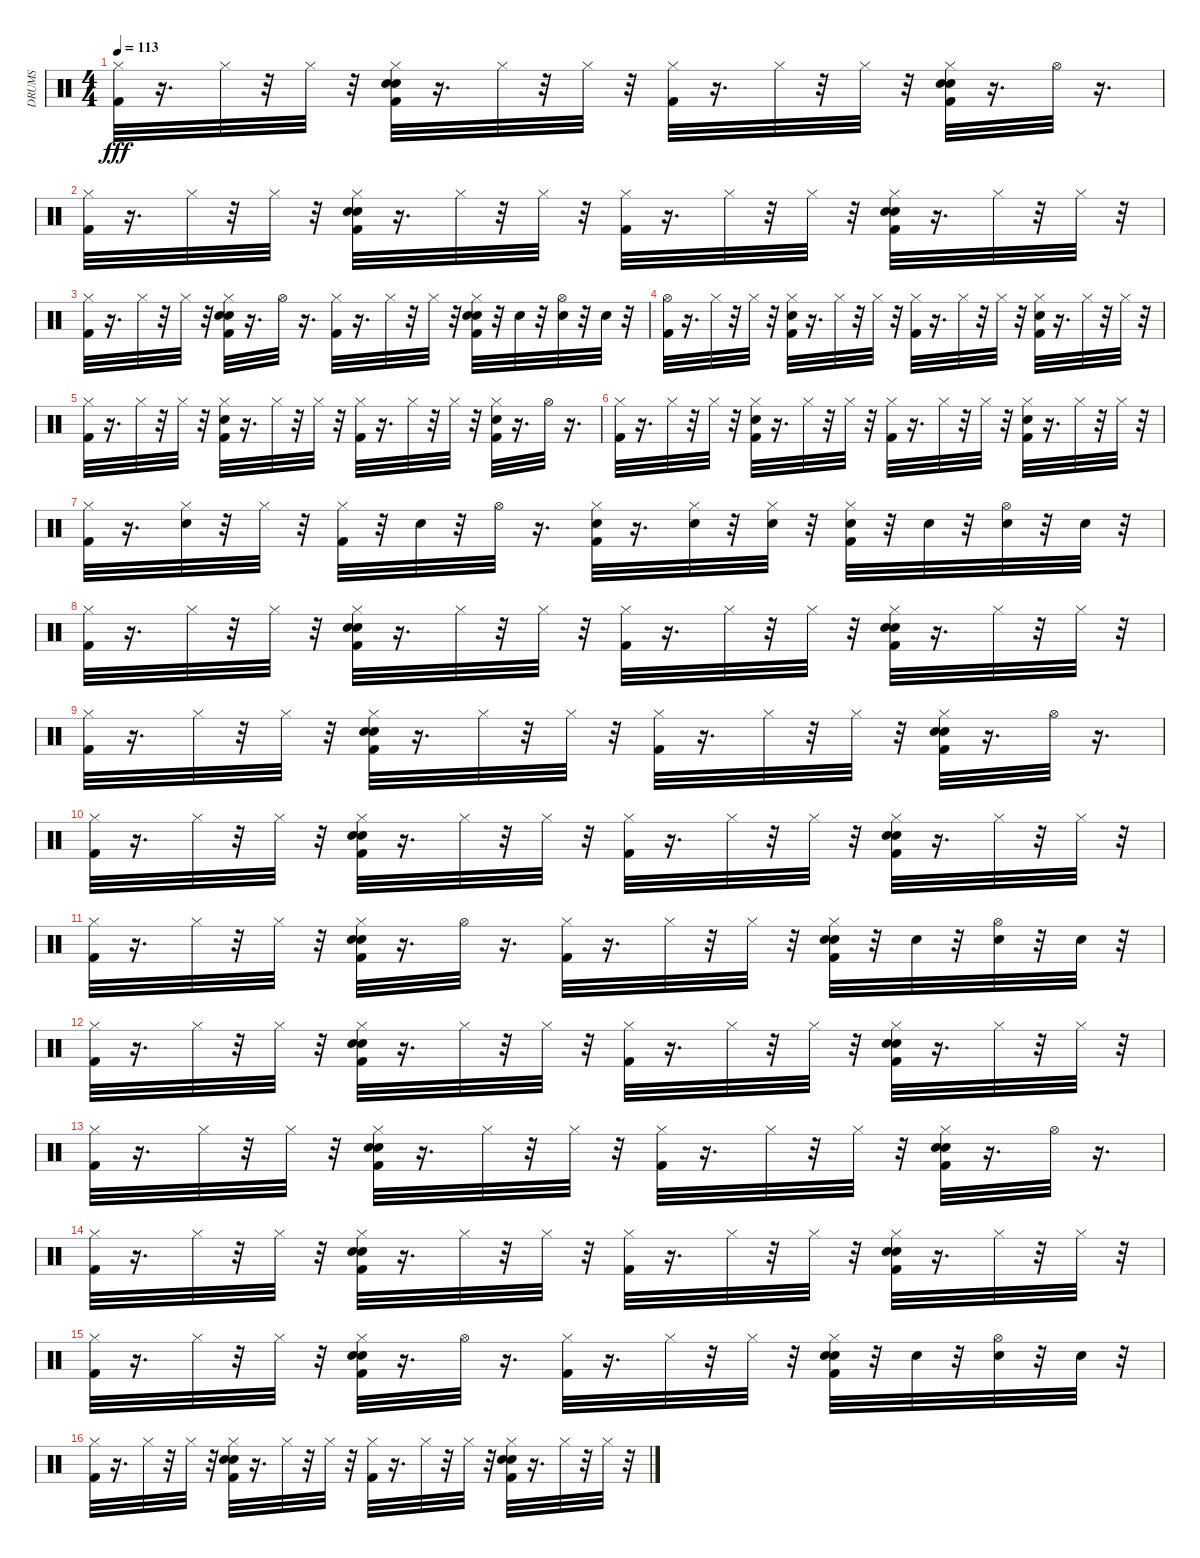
\track ("DRUMS" "DRUMS") {instrument percussion}
\staff {score}
\articulation defaults
\ts (4 4)
\tempo 113
\clef neutral
\ks c
("Hi-Hat (closed)" "Kick (hit) 2").32{dy fff} r.16{d} "Hi-Hat (closed)".32 r.32 "Hi-Hat (closed)".32 r.32 ("Hi-Hat (closed)" "Snare (hit) 2" "Kick (hit) 2" "Hand Clap (hit)").32 r.16{d} "Hi-Hat (closed)".32 r.32 "Hi-Hat (closed)".32 r.32 ("Hi-Hat (closed)" "Kick (hit) 2").32 r.16{d} "Hi-Hat (closed)".32 r.32 "Hi-Hat (closed)".32 r.32 ("Hi-Hat (closed)" "Snare (hit) 2" "Kick (hit) 2" "Hand Clap (hit)").32 r.16{d} "Hi-Hat (open)".32 r.16{d} |
("Hi-Hat (closed)" "Kick (hit) 2").32 r.16{d} "Hi-Hat (closed)".32 r.32 "Hi-Hat (closed)".32 r.32 ("Hi-Hat (closed)" "Snare (hit) 2" "Kick (hit) 2" "Hand Clap (hit)").32 r.16{d} "Hi-Hat (closed)".32 r.32 "Hi-Hat (closed)".32 r.32 ("Hi-Hat (closed)" "Kick (hit) 2").32 r.16{d} "Hi-Hat (closed)".32 r.32 "Hi-Hat (closed)".32 r.32 ("Hi-Hat (closed)" "Snare (hit) 2" "Kick (hit) 2" "Hand Clap (hit)").32 r.16{d} "Hi-Hat (closed)".32 r.32 "Hi-Hat (closed)".32 r.32 |
("Hi-Hat (closed)" "Kick (hit) 2").32 r.16{d} "Hi-Hat (closed)".32 r.32 "Hi-Hat (closed)".32 r.32 ("Hi-Hat (closed)" "Snare (hit) 2" "Kick (hit) 2" "Hand Clap (hit)").32 r.16{d} "Hi-Hat (open)".32 r.16{d} ("Hi-Hat (closed)" "Kick (hit) 2").32 r.16{d} "Hi-Hat (closed)".32 r.32 "Hi-Hat (closed)".32 r.32 ("Hi-Hat (closed)" "Snare (hit) 2" "Kick (hit) 2" "Hand Clap (hit)").32 r.32 "Hand Clap (hit)".32 r.32 ("Hi-Hat (open)" "Hand Clap (hit)").32 r.32 "Hand Clap (hit)".32 r.32 |
("Hi-Hat (open)" "Kick (hit) 2").32 r.16{d} "Hi-Hat (closed)".32 r.32 "Hi-Hat (closed)".32 r.32 ("Hi-Hat (closed)" "Snare (hit) 2" "Kick (hit) 2").32 r.16{d} "Hi-Hat (closed)".32 r.32 "Hi-Hat (closed)".32 r.32 ("Hi-Hat (closed)" "Kick (hit) 2").32 r.16{d} "Hi-Hat (closed)".32 r.32 "Hi-Hat (closed)".32 r.32 ("Hi-Hat (closed)" "Snare (hit) 2" "Kick (hit) 2").32 r.16{d} "Hi-Hat (closed)".32 r.32 "Hi-Hat (closed)".32 r.32 |
("Hi-Hat (closed)" "Kick (hit) 2").32 r.16{d} "Hi-Hat (closed)".32 r.32 "Hi-Hat (closed)".32 r.32 ("Hi-Hat (closed)" "Snare (hit) 2" "Kick (hit) 2").32 r.16{d} "Hi-Hat (closed)".32 r.32 "Hi-Hat (closed)".32 r.32 ("Hi-Hat (closed)" "Kick (hit) 2").32 r.16{d} "Hi-Hat (closed)".32 r.32 "Hi-Hat (closed)".32 r.32 ("Hi-Hat (closed)" "Snare (hit) 2" "Kick (hit) 2").32 r.16{d} "Hi-Hat (open)".32 r.16{d} |
("Hi-Hat (closed)" "Kick (hit) 2").32 r.16{d} "Hi-Hat (closed)".32 r.32 "Hi-Hat (closed)".32 r.32 ("Hi-Hat (closed)" "Snare (hit) 2" "Kick (hit) 2").32 r.16{d} "Hi-Hat (closed)".32 r.32 "Hi-Hat (closed)".32 r.32 ("Hi-Hat (closed)" "Kick (hit) 2").32 r.16{d} "Hi-Hat (closed)".32 r.32 "Hi-Hat (closed)".32 r.32 ("Hi-Hat (closed)" "Snare (hit) 2" "Kick (hit) 2").32 r.16{d} "Hi-Hat (closed)".32 r.32 "Hi-Hat (closed)".32 r.32 |
("Hi-Hat (closed)" "Kick (hit) 2").32 r.16{d} ("Hi-Hat (closed)" "Snare (hit) 2").32 r.32 "Hi-Hat (closed)".32 r.32 ("Hi-Hat (closed)" "Kick (hit) 2").32 r.32 "Snare (hit) 2".32 r.32 "Hi-Hat (open)".32 r.16{d} ("Hi-Hat (closed)" "Snare (hit) 2" "Kick (hit) 2").32 r.16{d} ("Hi-Hat (closed)" "Snare (hit) 2").32 r.32 ("Hi-Hat (closed)" "Snare (hit) 2").32 r.32 ("Hi-Hat (closed)" "Snare (hit) 2" "Kick (hit) 2").32 r.32 "Snare (hit) 2".32 r.32 ("Hi-Hat (open)" "Snare (hit) 2").32 r.32 "Snare (hit) 2".32 r.32 |
("Hi-Hat (closed)" "Kick (hit) 2").32 r.16{d} "Hi-Hat (closed)".32 r.32 "Hi-Hat (closed)".32 r.32 ("Hi-Hat (closed)" "Snare (hit) 2" "Kick (hit) 2" "Hand Clap (hit)").32 r.16{d} "Hi-Hat (closed)".32 r.32 "Hi-Hat (closed)".32 r.32 ("Hi-Hat (closed)" "Kick (hit) 2").32 r.16{d} "Hi-Hat (closed)".32 r.32 "Hi-Hat (closed)".32 r.32 ("Hi-Hat (closed)" "Snare (hit) 2" "Kick (hit) 2" "Hand Clap (hit)").32 r.16{d} "Hi-Hat (closed)".32 r.32 "Hi-Hat (closed)".32 r.32 |
("Hi-Hat (closed)" "Kick (hit) 2").32 r.16{d} "Hi-Hat (closed)".32 r.32 "Hi-Hat (closed)".32 r.32 ("Hi-Hat (closed)" "Snare (hit) 2" "Kick (hit) 2" "Hand Clap (hit)").32 r.16{d} "Hi-Hat (closed)".32 r.32 "Hi-Hat (closed)".32 r.32 ("Hi-Hat (closed)" "Kick (hit) 2").32 r.16{d} "Hi-Hat (closed)".32 r.32 "Hi-Hat (closed)".32 r.32 ("Hi-Hat (closed)" "Snare (hit) 2" "Kick (hit) 2" "Hand Clap (hit)").32 r.16{d} "Hi-Hat (open)".32 r.16{d} |
("Hi-Hat (closed)" "Kick (hit) 2").32 r.16{d} "Hi-Hat (closed)".32 r.32 "Hi-Hat (closed)".32 r.32 ("Hi-Hat (closed)" "Snare (hit) 2" "Kick (hit) 2" "Hand Clap (hit)").32 r.16{d} "Hi-Hat (closed)".32 r.32 "Hi-Hat (closed)".32 r.32 ("Hi-Hat (closed)" "Kick (hit) 2").32 r.16{d} "Hi-Hat (closed)".32 r.32 "Hi-Hat (closed)".32 r.32 ("Hi-Hat (closed)" "Snare (hit) 2" "Kick (hit) 2" "Hand Clap (hit)").32 r.16{d} "Hi-Hat (closed)".32 r.32 "Hi-Hat (closed)".32 r.32 |
("Hi-Hat (closed)" "Kick (hit) 2").32 r.16{d} "Hi-Hat (closed)".32 r.32 "Hi-Hat (closed)".32 r.32 ("Hi-Hat (closed)" "Snare (hit) 2" "Kick (hit) 2" "Hand Clap (hit)").32 r.16{d} "Hi-Hat (open)".32 r.16{d} ("Hi-Hat (closed)" "Kick (hit) 2").32 r.16{d} "Hi-Hat (closed)".32 r.32 "Hi-Hat (closed)".32 r.32 ("Hi-Hat (closed)" "Snare (hit) 2" "Kick (hit) 2" "Hand Clap (hit)").32 r.32 "Hand Clap (hit)".32 r.32 ("Hi-Hat (open)" "Hand Clap (hit)").32 r.32 "Hand Clap (hit)".32 r.32 |
("Hi-Hat (closed)" "Kick (hit) 2").32 r.16{d} "Hi-Hat (closed)".32 r.32 "Hi-Hat (closed)".32 r.32 ("Hi-Hat (closed)" "Snare (hit) 2" "Kick (hit) 2" "Hand Clap (hit)").32 r.16{d} "Hi-Hat (closed)".32 r.32 "Hi-Hat (closed)".32 r.32 ("Hi-Hat (closed)" "Kick (hit) 2").32 r.16{d} "Hi-Hat (closed)".32 r.32 "Hi-Hat (closed)".32 r.32 ("Hi-Hat (closed)" "Snare (hit) 2" "Kick (hit) 2" "Hand Clap (hit)").32 r.16{d} "Hi-Hat (closed)".32 r.32 "Hi-Hat (closed)".32 r.32 |
("Hi-Hat (closed)" "Kick (hit) 2").32 r.16{d} "Hi-Hat (closed)".32 r.32 "Hi-Hat (closed)".32 r.32 ("Hi-Hat (closed)" "Snare (hit) 2" "Kick (hit) 2" "Hand Clap (hit)").32 r.16{d} "Hi-Hat (closed)".32 r.32 "Hi-Hat (closed)".32 r.32 ("Hi-Hat (closed)" "Kick (hit) 2").32 r.16{d} "Hi-Hat (closed)".32 r.32 "Hi-Hat (closed)".32 r.32 ("Hi-Hat (closed)" "Snare (hit) 2" "Kick (hit) 2" "Hand Clap (hit)").32 r.16{d} "Hi-Hat (open)".32 r.16{d} |
("Hi-Hat (closed)" "Kick (hit) 2").32 r.16{d} "Hi-Hat (closed)".32 r.32 "Hi-Hat (closed)".32 r.32 ("Hi-Hat (closed)" "Snare (hit) 2" "Kick (hit) 2" "Hand Clap (hit)").32 r.16{d} "Hi-Hat (closed)".32 r.32 "Hi-Hat (closed)".32 r.32 ("Hi-Hat (closed)" "Kick (hit) 2").32 r.16{d} "Hi-Hat (closed)".32 r.32 "Hi-Hat (closed)".32 r.32 ("Hi-Hat (closed)" "Snare (hit) 2" "Kick (hit) 2" "Hand Clap (hit)").32 r.16{d} "Hi-Hat (closed)".32 r.32 "Hi-Hat (closed)".32 r.32 |
("Hi-Hat (closed)" "Kick (hit) 2").32 r.16{d} "Hi-Hat (closed)".32 r.32 "Hi-Hat (closed)".32 r.32 ("Hi-Hat (closed)" "Snare (hit) 2" "Kick (hit) 2" "Hand Clap (hit)").32 r.16{d} "Hi-Hat (open)".32 r.16{d} ("Hi-Hat (closed)" "Kick (hit) 2").32 r.16{d} "Hi-Hat (closed)".32 r.32 "Hi-Hat (closed)".32 r.32 ("Hi-Hat (closed)" "Snare (hit) 2" "Kick (hit) 2" "Hand Clap (hit)").32 r.32 "Hand Clap (hit)".32 r.32 ("Hi-Hat (open)" "Hand Clap (hit)").32 r.32 "Hand Clap (hit)".32 r.32 |
("Hi-Hat (closed)" "Kick (hit) 2").32 r.16{d} "Hi-Hat (closed)".32 r.32 "Hi-Hat (closed)".32 r.32 ("Hi-Hat (closed)" "Snare (hit) 2" "Kick (hit) 2" "Hand Clap (hit)").32 r.16{d} "Hi-Hat (closed)".32 r.32 "Hi-Hat (closed)".32 r.32 ("Hi-Hat (closed)" "Kick (hit) 2").32 r.16{d} "Hi-Hat (closed)".32 r.32 "Hi-Hat (closed)".32 r.32 ("Hi-Hat (closed)" "Snare (hit) 2" "Kick (hit) 2" "Hand Clap (hit)").32 r.16{d} "Hi-Hat (closed)".32 r.32 "Hi-Hat (closed)".32 r.32
